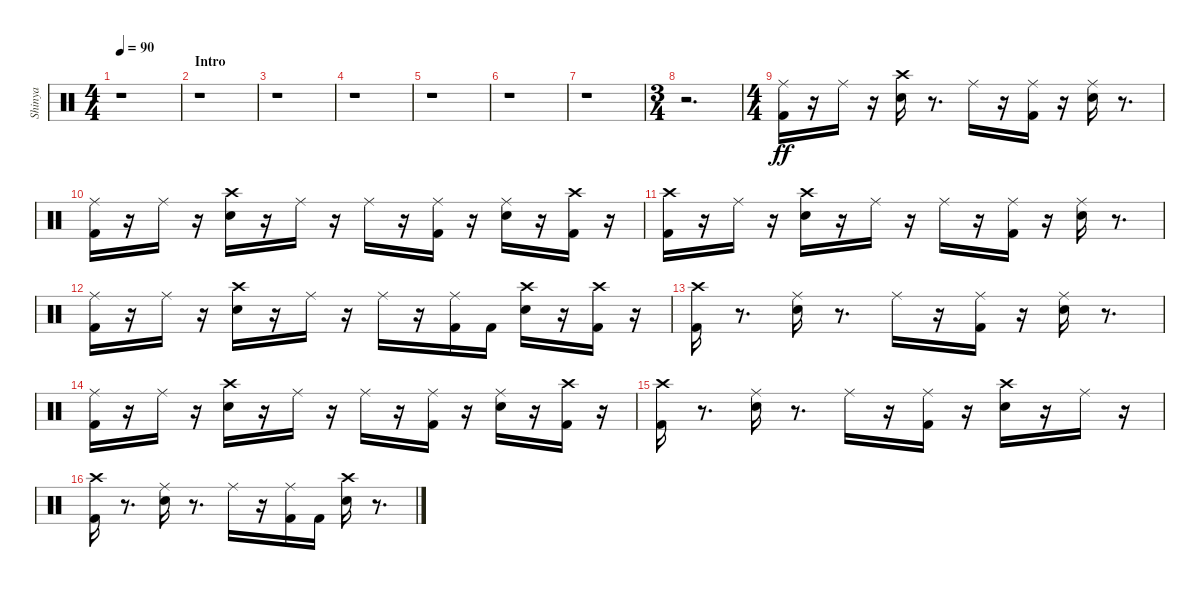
\track ("Shinya" "Shinya") {instrument percussion}
\staff {score}
\articulation defaults
\ts (4 4)
\tempo 90
\clef neutral
\ks c
r.1{dy ff} |
\section ("" "Intro")
r.1 |
r.1 |
r.1 |
r.1 |
r.1 |
r.1 |
\ts (3 4)
r.2{d} |
\ts (4 4)
("Ride (middle)" "Kick (hit) 2").16{volume 16 balance 8} r.16 "Ride (middle)".16 r.16 ("Snare (hit) 2" "Crash high (hit)").16 r.8{d} "Ride (middle)".16 r.16 ("Ride (middle)" "Kick (hit) 2").16 r.16 ("Snare (hit) 2" "Ride (middle)").16 r.8{d} |
("Ride (middle)" "Kick (hit) 2").16 r.16 "Ride (middle)".16 r.16 ("Snare (hit) 2" "Crash high (hit)").16 r.16 "Ride (middle)".16 r.16 "Ride (middle)".16 r.16 ("Ride (middle)" "Kick (hit) 2").16 r.16 ("Snare (hit) 2" "Ride (middle)").16 r.16 ("Crash high (hit)" "Kick (hit) 2").16 r.16 |
("Crash high (hit)" "Kick (hit) 2").16 r.16 "Ride (middle)".16 r.16 ("Snare (hit) 2" "Crash high (hit)").16 r.16 "Ride (middle)".16 r.16 "Ride (middle)".16 r.16 ("Ride (middle)" "Kick (hit) 2").16 r.16 ("Snare (hit) 2" "Ride (middle)").16 r.8{d} |
("Ride (middle)" "Kick (hit) 2").16 r.16 "Ride (middle)".16 r.16 ("Snare (hit) 2" "Crash high (hit)").16 r.16 "Ride (middle)".16 r.16 "Ride (middle)".16 r.16 ("Ride (middle)" "Kick (hit) 2").16 "Kick (hit) 2".16 ("Snare (hit) 2" "Crash high (hit)").16 r.16 ("Crash high (hit)" "Kick (hit) 2").16 r.16 |
("Crash high (hit)" "Kick (hit) 2").16 r.8{d} ("Snare (hit) 2" "Ride (middle)").16 r.8{d} "Ride (middle)".16 r.16 ("Ride (middle)" "Kick (hit) 2").16 r.16 ("Ride (middle)" "Snare (hit) 2").16 r.8{d} |
("Ride (middle)" "Kick (hit) 2").16 r.16 "Ride (middle)".16 r.16 ("Snare (hit) 2" "Crash high (hit)").16 r.16 "Ride (middle)".16 r.16 "Ride (middle)".16 r.16 ("Ride (middle)" "Kick (hit) 2").16 r.16 ("Snare (hit) 2" "Ride (middle)").16 r.16 ("Crash high (hit)" "Kick (hit) 2").16 r.16 |
("Crash high (hit)" "Kick (hit) 2").16 r.8{d} ("Snare (hit) 2" "Ride (middle)").16 r.8{d} "Ride (middle)".16 r.16 ("Ride (middle)" "Kick (hit) 2").16 r.16 ("Snare (hit) 2" "Crash high (hit)").16 r.16 "Ride (middle)".16 r.16 |
("Crash high (hit)" "Kick (hit) 2").16 r.8{d} ("Snare (hit) 2" "Ride (middle)").16 r.8{d} "Ride (middle)".16 r.16 ("Ride (middle)" "Kick (hit) 2").16 "Kick (hit) 2".16 ("Snare (hit) 2" "Crash high (hit)").16 r.8{d}
